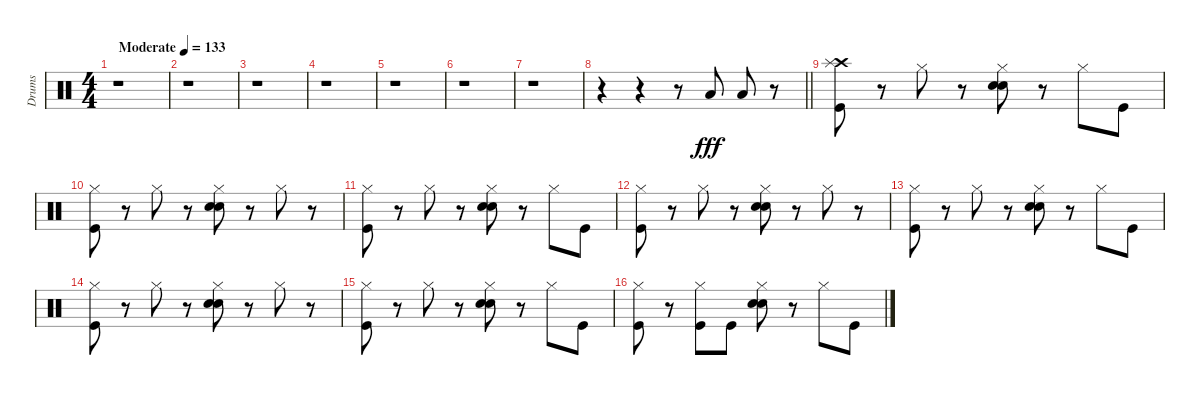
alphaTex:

\track ("Drums" "Drums") {instrument percussion}
\staff {score}
\articulation defaults
\ts (4 4)
\tempo (133 "Moderate")
\clef neutral
\ks c
r.1{dy fff} |
r.1 |
r.1 |
r.1 |
r.1 |
r.1 |
r.1 |
\barLineRight lightlight
r.4 r.4 r.8 "Low Tom (hit)".8 "Low Floor Tom (hit)".8 r.8 |
("Crash high (hit)" "Splash (hit)" "Kick (hit)").8 r.8 "Hi-Hat (closed)".8 r.8 ("Hi-Hat (closed)" "Electric Snare (hit)" "Snare (hit) 2").8 r.8 "Hi-Hat (closed)".8 "Kick (hit)".8 |
("Hi-Hat (closed)" "Kick (hit)").8 r.8 "Hi-Hat (closed)".8 r.8 ("Hi-Hat (closed)" "Electric Snare (hit)" "Snare (hit) 2").8 r.8 "Hi-Hat (closed)".8 r.8 |
("Hi-Hat (closed)" "Kick (hit)").8 r.8 "Hi-Hat (closed)".8 r.8 ("Hi-Hat (closed)" "Electric Snare (hit)" "Snare (hit) 2").8 r.8 "Hi-Hat (closed)".8 "Kick (hit)".8 |
("Hi-Hat (closed)" "Kick (hit)").8 r.8 "Hi-Hat (closed)".8 r.8 ("Hi-Hat (closed)" "Electric Snare (hit)" "Snare (hit) 2").8 r.8 "Hi-Hat (closed)".8 r.8 |
("Hi-Hat (closed)" "Kick (hit)").8 r.8 "Hi-Hat (closed)".8 r.8 ("Hi-Hat (closed)" "Electric Snare (hit)" "Snare (hit) 2").8 r.8 "Hi-Hat (closed)".8 "Kick (hit)".8 |
("Hi-Hat (closed)" "Kick (hit)").8 r.8 "Hi-Hat (closed)".8 r.8 ("Hi-Hat (closed)" "Electric Snare (hit)" "Snare (hit) 2").8 r.8 "Hi-Hat (closed)".8 r.8 |
("Hi-Hat (closed)" "Kick (hit)").8 r.8 "Hi-Hat (closed)".8 r.8 ("Hi-Hat (closed)" "Electric Snare (hit)" "Snare (hit) 2").8 r.8 "Hi-Hat (closed)".8 "Kick (hit)".8 |
("Hi-Hat (closed)" "Kick (hit)").8 r.8 ("Hi-Hat (closed)" "Kick (hit)").8 "Kick (hit)".8 ("Hi-Hat (closed)" "Electric Snare (hit)" "Snare (hit) 2").8 r.8 "Hi-Hat (closed)".8 "Kick (hit)".8
